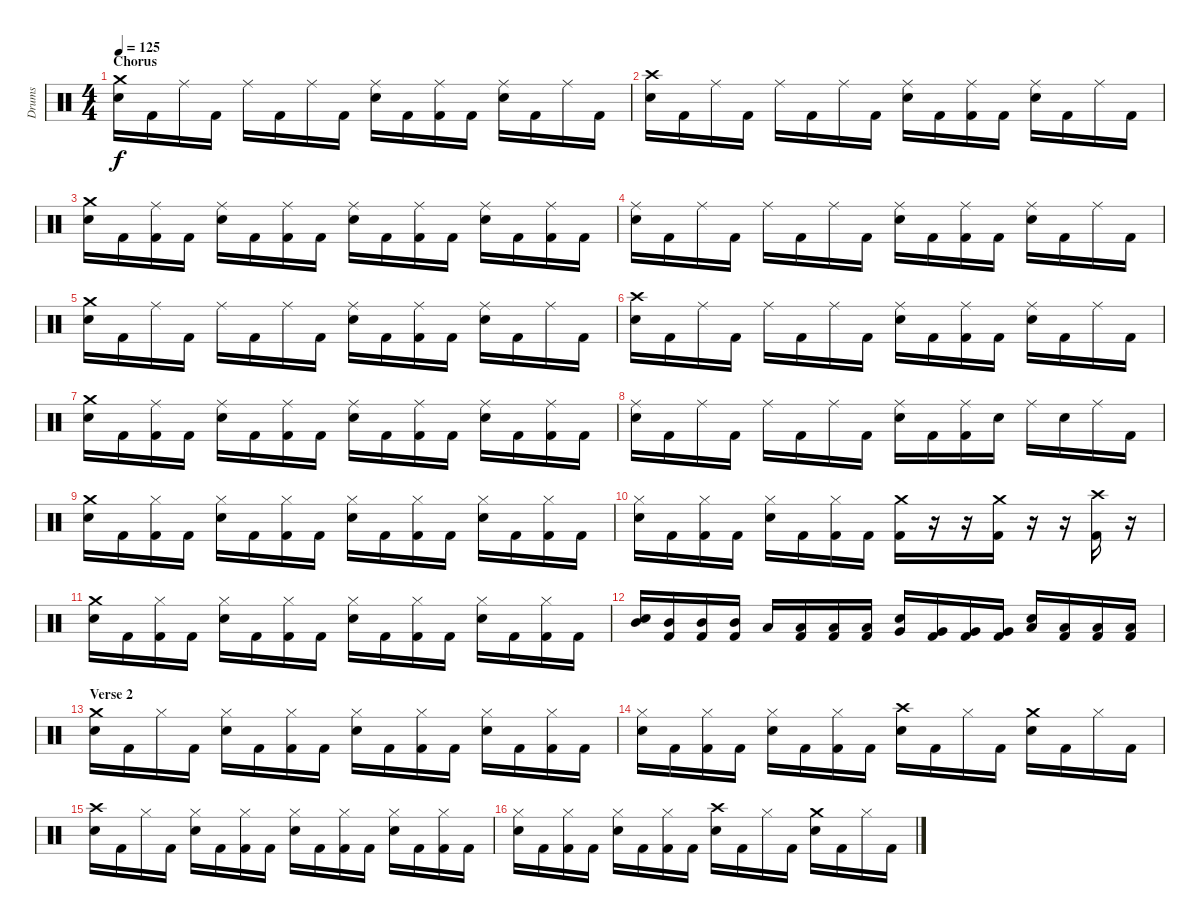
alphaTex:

\track ("Drums" "Drums") {instrument percussion}
\staff {score}
\articulation defaults
\ts (4 4)
\section ("" "Chorus")
\tempo 125
\clef neutral
\ks c
("Crash medium (hit)" "Electric Snare (hit)").16{dy f} "Kick (hit) 2".16 "Ride (middle)".16 "Kick (hit) 2".16 "Ride (middle)".16 "Kick (hit) 2".16 "Ride (middle)".16 "Kick (hit) 2".16 ("Ride (middle)" "Electric Snare (hit)").16 "Kick (hit) 2".16 ("Ride (middle)" "Kick (hit) 2").16 "Kick (hit) 2".16 ("Ride (middle)" "Electric Snare (hit)").16 "Kick (hit) 2".16 "Ride (middle)".16 "Kick (hit) 2".16 |
("Crash high (hit)" "Electric Snare (hit)").16 "Kick (hit) 2".16 "Ride (middle)".16 "Kick (hit) 2".16 "Ride (middle)".16 "Kick (hit) 2".16 "Ride (middle)".16 "Kick (hit) 2".16 ("Ride (middle)" "Electric Snare (hit)").16 "Kick (hit) 2".16 ("Ride (middle)" "Kick (hit) 2").16 "Kick (hit) 2".16 ("Ride (middle)" "Electric Snare (hit)").16 "Kick (hit) 2".16 "Ride (middle)".16 "Kick (hit) 2".16 |
("Crash medium (hit)" "Electric Snare (hit)").16 "Kick (hit) 2".16 ("Ride (middle)" "Kick (hit) 2").16 "Kick (hit) 2".16 ("Ride (middle)" "Electric Snare (hit)").16 "Kick (hit) 2".16 ("Ride (middle)" "Kick (hit) 2").16 "Kick (hit) 2".16 ("Ride (middle)" "Electric Snare (hit)").16 "Kick (hit) 2".16 ("Ride (middle)" "Kick (hit) 2").16 "Kick (hit) 2".16 ("Ride (middle)" "Electric Snare (hit)").16 "Kick (hit) 2".16 ("Ride (middle)" "Kick (hit) 2").16 "Kick (hit) 2".16 |
("Ride (middle)" "Electric Snare (hit)").16 "Kick (hit) 2".16 "Ride (middle)".16 "Kick (hit) 2".16 "Ride (middle)".16 "Kick (hit) 2".16 "Ride (middle)".16 "Kick (hit) 2".16 ("Ride (middle)" "Electric Snare (hit)").16 "Kick (hit) 2".16 ("Ride (middle)" "Kick (hit) 2").16 "Kick (hit) 2".16 ("Ride (middle)" "Electric Snare (hit)").16 "Kick (hit) 2".16 "Ride (middle)".16 "Kick (hit) 2".16 |
("Crash medium (hit)" "Electric Snare (hit)").16 "Kick (hit) 2".16 "Ride (middle)".16 "Kick (hit) 2".16 "Ride (middle)".16 "Kick (hit) 2".16 "Ride (middle)".16 "Kick (hit) 2".16 ("Ride (middle)" "Electric Snare (hit)").16 "Kick (hit) 2".16 ("Ride (middle)" "Kick (hit) 2").16 "Kick (hit) 2".16 ("Ride (middle)" "Electric Snare (hit)").16 "Kick (hit) 2".16 "Ride (middle)".16 "Kick (hit) 2".16 |
("Crash high (hit)" "Electric Snare (hit)").16 "Kick (hit) 2".16 "Ride (middle)".16 "Kick (hit) 2".16 "Ride (middle)".16 "Kick (hit) 2".16 "Ride (middle)".16 "Kick (hit) 2".16 ("Ride (middle)" "Electric Snare (hit)").16 "Kick (hit) 2".16 ("Ride (middle)" "Kick (hit) 2").16 "Kick (hit) 2".16 ("Ride (middle)" "Electric Snare (hit)").16 "Kick (hit) 2".16 "Ride (middle)".16 "Kick (hit) 2".16 |
("Crash medium (hit)" "Electric Snare (hit)").16 "Kick (hit) 2".16 ("Ride (middle)" "Kick (hit) 2").16 "Kick (hit) 2".16 ("Ride (middle)" "Electric Snare (hit)").16 "Kick (hit) 2".16 ("Ride (middle)" "Kick (hit) 2").16 "Kick (hit) 2".16 ("Ride (middle)" "Electric Snare (hit)").16 "Kick (hit) 2".16 ("Ride (middle)" "Kick (hit) 2").16 "Kick (hit) 2".16 ("Ride (middle)" "Electric Snare (hit)").16 "Kick (hit) 2".16 ("Ride (middle)" "Kick (hit) 2").16 "Kick (hit) 2".16 |
("Ride (middle)" "Electric Snare (hit)").16 "Kick (hit) 2".16 "Ride (middle)".16 "Kick (hit) 2".16 "Ride (middle)".16 "Kick (hit) 2".16 "Ride (middle)".16 "Kick (hit) 2".16 ("Ride (middle)" "Electric Snare (hit)").16 "Kick (hit) 2".16 ("Ride (middle)" "Kick (hit) 2").16 "Electric Snare (hit)".16 "Ride (middle)".16 "Electric Snare (hit)".16 "Ride (middle)".16 "Kick (hit) 2".16 |
("Crash medium (hit)" "Electric Snare (hit)").16 "Kick (hit) 2".16 ("Hi-Hat (closed)" "Kick (hit) 2").16 "Kick (hit) 2".16 ("Hi-Hat (closed)" "Electric Snare (hit)").16 "Kick (hit) 2".16 ("Hi-Hat (closed)" "Kick (hit) 2").16 "Kick (hit) 2".16 ("Hi-Hat (closed)" "Electric Snare (hit)").16 "Kick (hit) 2".16 ("Hi-Hat (closed)" "Kick (hit) 2").16 "Kick (hit) 2".16 ("Hi-Hat (closed)" "Electric Snare (hit)").16 "Kick (hit) 2".16 ("Hi-Hat (closed)" "Kick (hit) 2").16 "Kick (hit) 2".16 |
("Hi-Hat (closed)" "Electric Snare (hit)").16 "Kick (hit) 2".16 ("Hi-Hat (closed)" "Kick (hit) 2").16 "Kick (hit) 2".16 ("Hi-Hat (closed)" "Electric Snare (hit)").16 "Kick (hit) 2".16 ("Hi-Hat (closed)" "Kick (hit) 2").16 "Kick (hit) 2".16 ("Crash medium (hit)" "Kick (hit) 2").16 r.16 r.16 ("Crash medium (hit)" "Kick (hit) 2").16 r.16 r.16 ("Crash high (hit)" "Kick (hit) 2").16 r.16 |
("Crash medium (hit)" "Electric Snare (hit)").16 "Kick (hit) 2".16 ("Hi-Hat (closed)" "Kick (hit) 2").16 "Kick (hit) 2".16 ("Hi-Hat (closed)" "Electric Snare (hit)").16 "Kick (hit) 2".16 ("Hi-Hat (closed)" "Kick (hit) 2").16 "Kick (hit) 2".16 ("Hi-Hat (closed)" "Electric Snare (hit)").16 "Kick (hit) 2".16 ("Hi-Hat (closed)" "Kick (hit) 2").16 "Kick (hit) 2".16 ("Hi-Hat (closed)" "Electric Snare (hit)").16 "Kick (hit) 2".16 ("Hi-Hat (closed)" "Kick (hit) 2").16 "Kick (hit) 2".16 |
("Mid Tom (hit)" "Electric Snare (hit)").16 ("Mid Tom (hit)" "Kick (hit) 2").16 ("Mid Tom (hit)" "Kick (hit) 2").16 ("Mid Tom (hit)" "Kick (hit) 2").16 "Low Tom (hit)".16 ("Low Tom (hit)" "Kick (hit) 2").16 ("Low Tom (hit)" "Kick (hit) 2").16 ("Low Tom (hit)" "Kick (hit) 2").16 ("Very Low Tom (hit)" "Electric Snare (hit)").16 ("Very Low Tom (hit)" "Kick (hit) 2").16 ("Very Low Tom (hit)" "Kick (hit) 2").16 ("Very Low Tom (hit)" "Kick (hit) 2").16 ("Low Floor Tom (hit)" "Electric Snare (hit)").16 ("Low Floor Tom (hit)" "Kick (hit) 2").16 ("Low Floor Tom (hit)" "Kick (hit) 2").16 ("Low Floor Tom (hit)" "Kick (hit) 2").16 |
\section ("" "Verse 2")
("Crash medium (hit)" "Electric Snare (hit)").16 "Kick (hit) 2".16 "Hi-Hat (closed)".16 "Kick (hit) 2".16 ("Hi-Hat (closed)" "Electric Snare (hit)").16 "Kick (hit) 2".16 ("Hi-Hat (closed)" "Kick (hit) 2").16 "Kick (hit) 2".16 ("Hi-Hat (closed)" "Electric Snare (hit)").16 "Kick (hit) 2".16 ("Hi-Hat (closed)" "Kick (hit) 2").16 "Kick (hit) 2".16 ("Hi-Hat (closed)" "Electric Snare (hit)").16 "Kick (hit) 2".16 ("Hi-Hat (closed)" "Kick (hit) 2").16 "Kick (hit) 2".16 |
("Hi-Hat (closed)" "Electric Snare (hit)").16 "Kick (hit) 2".16 ("Hi-Hat (closed)" "Kick (hit) 2").16 "Kick (hit) 2".16 ("Hi-Hat (closed)" "Electric Snare (hit)").16 "Kick (hit) 2".16 ("Hi-Hat (closed)" "Kick (hit) 2").16 "Kick (hit) 2".16 ("Crash high (hit)" "Electric Snare (hit)").16 "Kick (hit) 2".16 "Hi-Hat (closed)".16 "Kick (hit) 2".16 ("Crash medium (hit)" "Electric Snare (hit)").16 "Kick (hit) 2".16 "Hi-Hat (closed)".16 "Kick (hit) 2".16 |
("Crash high (hit)" "Electric Snare (hit)").16 "Kick (hit) 2".16 "Hi-Hat (closed)".16 "Kick (hit) 2".16 ("Hi-Hat (closed)" "Electric Snare (hit)").16 "Kick (hit) 2".16 ("Hi-Hat (closed)" "Kick (hit) 2").16 "Kick (hit) 2".16 ("Hi-Hat (closed)" "Electric Snare (hit)").16 "Kick (hit) 2".16 ("Hi-Hat (closed)" "Kick (hit) 2").16 "Kick (hit) 2".16 ("Hi-Hat (closed)" "Electric Snare (hit)").16 "Kick (hit) 2".16 ("Hi-Hat (closed)" "Kick (hit) 2").16 "Kick (hit) 2".16 |
("Hi-Hat (closed)" "Electric Snare (hit)").16 "Kick (hit) 2".16 ("Hi-Hat (closed)" "Kick (hit) 2").16 "Kick (hit) 2".16 ("Hi-Hat (closed)" "Electric Snare (hit)").16 "Kick (hit) 2".16 ("Hi-Hat (closed)" "Kick (hit) 2").16 "Kick (hit) 2".16 ("Crash high (hit)" "Electric Snare (hit)").16 "Kick (hit) 2".16 "Hi-Hat (closed)".16 "Kick (hit) 2".16 ("Crash medium (hit)" "Electric Snare (hit)").16 "Kick (hit) 2".16 "Hi-Hat (closed)".16 "Kick (hit) 2".16
